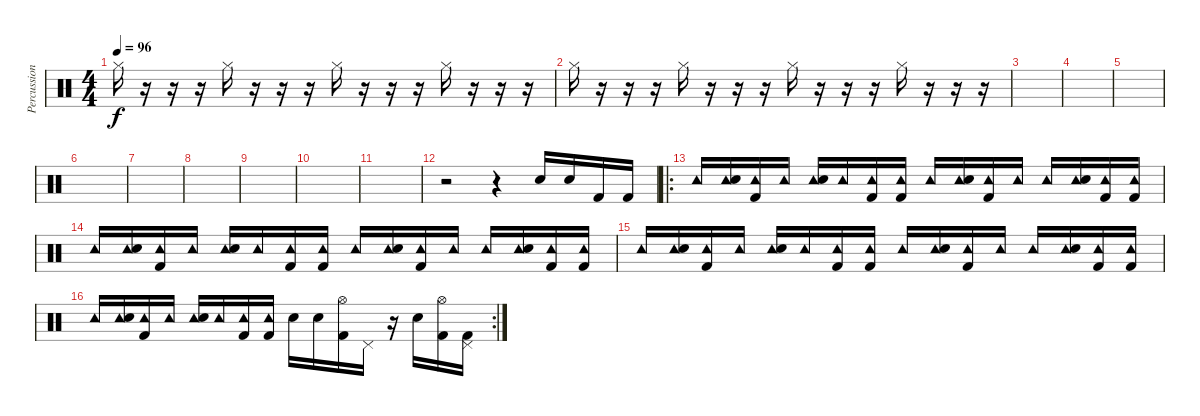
\track ("Percussion" "Percussion") {instrument percussion}
\staff {score}
\articulation defaults
\ts (4 4)
\tempo 96
\clef neutral
\ks c "Hi-Hat (closed)".16{dy f}
r.16 r.16 r.16 "Hi-Hat (closed)".16 r.16 r.16 r.16 "Hi-Hat (closed)".16 r.16 r.16 r.16 "Hi-Hat (closed)".16 r.16 r.16 r.16 |
"Hi-Hat (closed)".16 r.16 r.16 r.16 "Hi-Hat (closed)".16 r.16 r.16 r.16 "Hi-Hat (closed)".16 r.16 r.16 r.16 "Hi-Hat (closed)".16 r.16 r.16 r.16 |
|
|
|
|
|
|
|
|
|
r.2 r.4 "Electric Snare (hit)".16 "Electric Snare (hit)".16 "Kick (hit) 2".16 "Kick (hit) 2".16 |
\ro "Tambourine (hit)".16
("Tambourine (hit)" "Electric Snare (hit)").16 ("Tambourine (hit)" "Kick (hit) 2").16 "Tambourine (hit)".16 ("Tambourine (hit)" "Electric Snare (hit)").16 "Tambourine (hit)".16 ("Tambourine (hit)" "Kick (hit) 2").16 ("Tambourine (hit)" "Kick (hit) 2").16 "Tambourine (hit)".16 ("Tambourine (hit)" "Electric Snare (hit)").16 ("Tambourine (hit)" "Kick (hit) 2").16 "Tambourine (hit)".16 "Tambourine (hit)".16 ("Tambourine (hit)" "Electric Snare (hit)").16 ("Tambourine (hit)" "Kick (hit) 2").16 ("Tambourine (hit)" "Kick (hit) 2").16 |
"Tambourine (hit)".16 ("Tambourine (hit)" "Electric Snare (hit)").16 ("Tambourine (hit)" "Kick (hit) 2").16 "Tambourine (hit)".16 ("Tambourine (hit)" "Electric Snare (hit)").16 "Tambourine (hit)".16 ("Tambourine (hit)" "Kick (hit) 2").16 ("Tambourine (hit)" "Kick (hit) 2").16 "Tambourine (hit)".16 ("Tambourine (hit)" "Electric Snare (hit)").16 ("Tambourine (hit)" "Kick (hit) 2").16 "Tambourine (hit)".16 "Tambourine (hit)".16 ("Tambourine (hit)" "Electric Snare (hit)").16 ("Tambourine (hit)" "Kick (hit) 2").16 ("Tambourine (hit)" "Kick (hit) 2").16 |
"Tambourine (hit)".16 ("Tambourine (hit)" "Electric Snare (hit)").16 ("Tambourine (hit)" "Kick (hit) 2").16 "Tambourine (hit)".16 ("Tambourine (hit)" "Electric Snare (hit)").16 "Tambourine (hit)".16 ("Tambourine (hit)" "Kick (hit) 2").16 ("Tambourine (hit)" "Kick (hit) 2").16 "Tambourine (hit)".16 ("Tambourine (hit)" "Electric Snare (hit)").16 ("Tambourine (hit)" "Kick (hit) 2").16 "Tambourine (hit)".16 "Tambourine (hit)".16 ("Tambourine (hit)" "Electric Snare (hit)").16 ("Tambourine (hit)" "Kick (hit) 2").16 ("Tambourine (hit)" "Kick (hit) 2").16 |
\rc 2 "Tambourine (hit)".16
("Tambourine (hit)" "Electric Snare (hit)").16 ("Tambourine (hit)" "Kick (hit) 2").16 "Tambourine (hit)".16 ("Tambourine (hit)" "Electric Snare (hit)").16 "Tambourine (hit)".16 ("Tambourine (hit)" "Kick (hit) 2").16 ("Tambourine (hit)" "Kick (hit) 2").16 "Electric Snare (hit)".16 "Electric Snare (hit)".16 ("Hi-Hat (open)" "Kick (hit) 2").16 "Pedal Hi-Hat (hit)".16 r.16 "Electric Snare (hit)".16 ("Hi-Hat (open)" "Kick (hit) 2").16 ("Pedal Hi-Hat (hit)" "Kick (hit) 2").16
